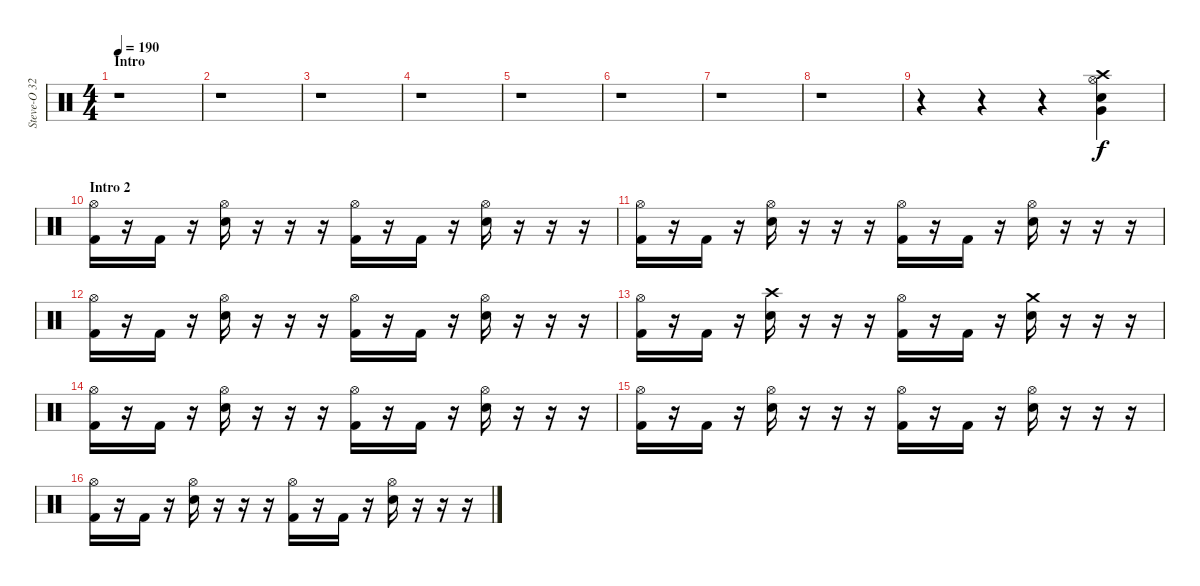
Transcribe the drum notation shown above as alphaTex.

\track ("Steve-O 32 ( Drums )" "Steve-O 32") {instrument percussion}
\staff {score}
\articulation defaults
\ts (4 4)
\section ("" "Intro")
\tempo 190
\clef neutral
\ks c
r.1{dy f} |
r.1 |
r.1 |
r.1 |
r.1 |
r.1 |
r.1 |
r.1 |
r.4 r.4 r.4 ("Very Low Tom (hit)" "Snare (hit) 2" "Hi-Hat (open)" "Crash high (hit)").4 |
\section ("" "Intro 2")
("Hi-Hat (open)" "Kick (hit) 2").16 r.16 "Kick (hit) 2".16 r.16 ("Hi-Hat (open)" "Snare (hit) 2").16 r.16 r.16 r.16 ("Hi-Hat (open)" "Kick (hit) 2").16 r.16 "Kick (hit) 2".16 r.16 ("Hi-Hat (open)" "Snare (hit) 2").16 r.16 r.16 r.16 |
("Hi-Hat (open)" "Kick (hit) 2").16 r.16 "Kick (hit) 2".16 r.16 ("Hi-Hat (open)" "Snare (hit) 2").16 r.16 r.16 r.16 ("Hi-Hat (open)" "Kick (hit) 2").16 r.16 "Kick (hit) 2".16 r.16 ("Hi-Hat (open)" "Snare (hit) 2").16 r.16 r.16 r.16 |
("Hi-Hat (open)" "Kick (hit) 2").16 r.16 "Kick (hit) 2".16 r.16 ("Hi-Hat (open)" "Snare (hit) 2").16 r.16 r.16 r.16 ("Hi-Hat (open)" "Kick (hit) 2").16 r.16 "Kick (hit) 2".16 r.16 ("Hi-Hat (open)" "Snare (hit) 2").16 r.16 r.16 r.16 |
("Hi-Hat (open)" "Kick (hit) 2").16 r.16 "Kick (hit) 2".16 r.16 ("Crash high (hit)" "Snare (hit) 2").16 r.16 r.16 r.16 ("Hi-Hat (open)" "Kick (hit) 2").16 r.16 "Kick (hit) 2".16 r.16 ("Crash medium (hit)" "Snare (hit) 2").16 r.16 r.16 r.16 |
("Hi-Hat (open)" "Kick (hit) 2").16 r.16 "Kick (hit) 2".16 r.16 ("Hi-Hat (open)" "Snare (hit) 2").16 r.16 r.16 r.16 ("Hi-Hat (open)" "Kick (hit) 2").16 r.16 "Kick (hit) 2".16 r.16 ("Hi-Hat (open)" "Snare (hit) 2").16 r.16 r.16 r.16 |
("Hi-Hat (open)" "Kick (hit) 2").16 r.16 "Kick (hit) 2".16 r.16 ("Hi-Hat (open)" "Snare (hit) 2").16 r.16 r.16 r.16 ("Hi-Hat (open)" "Kick (hit) 2").16 r.16 "Kick (hit) 2".16 r.16 ("Hi-Hat (open)" "Snare (hit) 2").16 r.16 r.16 r.16 |
("Hi-Hat (open)" "Kick (hit) 2").16 r.16 "Kick (hit) 2".16 r.16 ("Hi-Hat (open)" "Snare (hit) 2").16 r.16 r.16 r.16 ("Hi-Hat (open)" "Kick (hit) 2").16 r.16 "Kick (hit) 2".16 r.16 ("Hi-Hat (open)" "Snare (hit) 2").16 r.16 r.16 r.16
